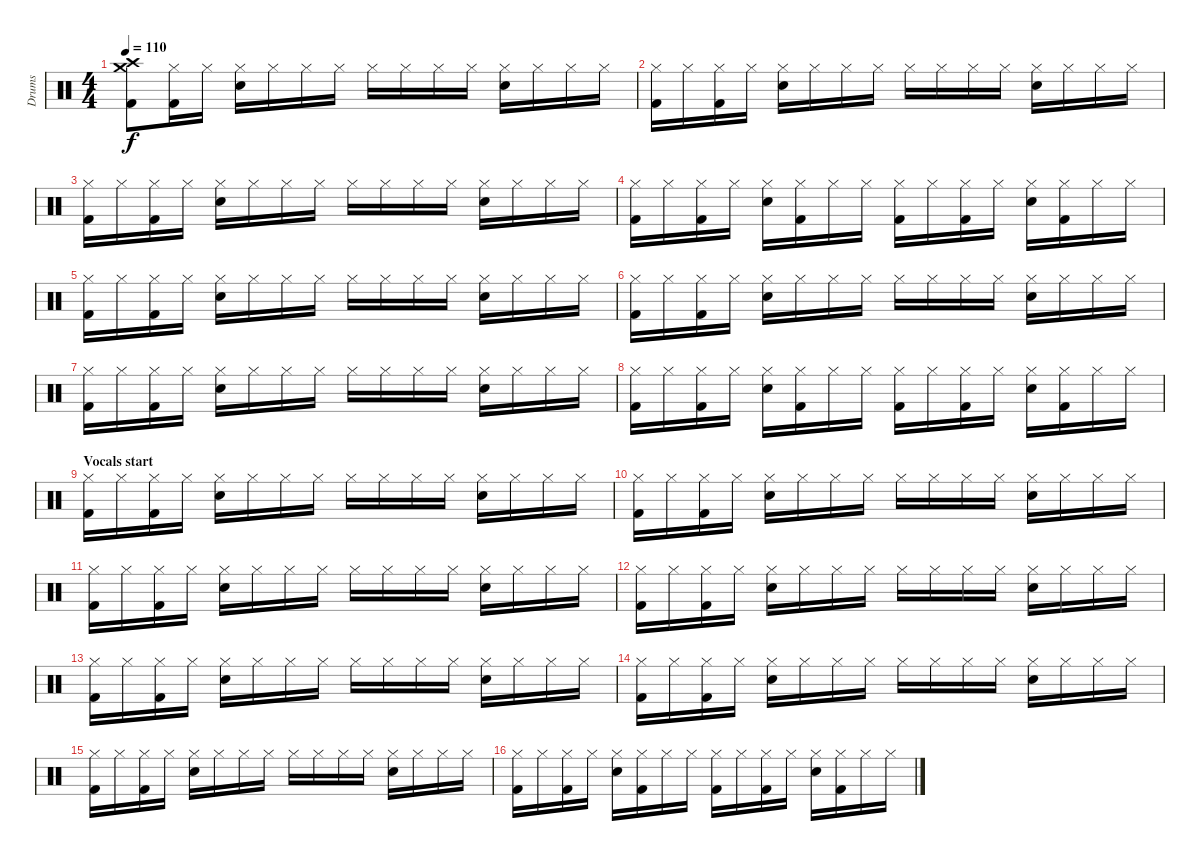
\track ("Drums" "Drums") {instrument percussion}
\staff {score}
\articulation defaults
\ts (4 4)
\tempo 110
\clef neutral
\ks c
("Crash high (hit)" "Crash medium (hit)" "Kick (hit) 2").8{dy f} ("Hi-Hat (closed)" "Kick (hit) 2").16 "Hi-Hat (closed)".16 ("Hi-Hat (closed)" "Snare (hit) 2").16 "Hi-Hat (closed)".16 "Hi-Hat (closed)".16 "Hi-Hat (closed)".16 "Hi-Hat (closed)".16 "Hi-Hat (closed)".16 "Hi-Hat (closed)".16 "Hi-Hat (closed)".16 ("Hi-Hat (closed)" "Snare (hit) 2").16 "Hi-Hat (closed)".16 "Hi-Hat (closed)".16 "Hi-Hat (closed)".16 |
("Hi-Hat (closed)" "Kick (hit) 2").16 "Hi-Hat (closed)".16 ("Hi-Hat (closed)" "Kick (hit) 2").16 "Hi-Hat (closed)".16 ("Hi-Hat (closed)" "Snare (hit) 2").16 "Hi-Hat (closed)".16 "Hi-Hat (closed)".16 "Hi-Hat (closed)".16 "Hi-Hat (closed)".16 "Hi-Hat (closed)".16 "Hi-Hat (closed)".16 "Hi-Hat (closed)".16 ("Hi-Hat (closed)" "Snare (hit) 2").16 "Hi-Hat (closed)".16 "Hi-Hat (closed)".16 "Hi-Hat (closed)".16 |
("Hi-Hat (closed)" "Kick (hit) 2").16 "Hi-Hat (closed)".16 ("Hi-Hat (closed)" "Kick (hit) 2").16 "Hi-Hat (closed)".16 ("Hi-Hat (closed)" "Snare (hit) 2").16 "Hi-Hat (closed)".16 "Hi-Hat (closed)".16 "Hi-Hat (closed)".16 "Hi-Hat (closed)".16 "Hi-Hat (closed)".16 "Hi-Hat (closed)".16 "Hi-Hat (closed)".16 ("Hi-Hat (closed)" "Snare (hit) 2").16 "Hi-Hat (closed)".16 "Hi-Hat (closed)".16 "Hi-Hat (closed)".16 |
("Hi-Hat (closed)" "Kick (hit) 2").16 "Hi-Hat (closed)".16 ("Hi-Hat (closed)" "Kick (hit) 2").16 "Hi-Hat (closed)".16 ("Hi-Hat (closed)" "Snare (hit) 2").16 ("Hi-Hat (closed)" "Kick (hit) 2").16 "Hi-Hat (closed)".16 "Hi-Hat (closed)".16 ("Hi-Hat (closed)" "Kick (hit) 2").16 "Hi-Hat (closed)".16 ("Hi-Hat (closed)" "Kick (hit) 2").16 "Hi-Hat (closed)".16 ("Hi-Hat (closed)" "Snare (hit) 2").16 ("Hi-Hat (closed)" "Kick (hit) 2").16 "Hi-Hat (closed)".16 "Hi-Hat (closed)".16 |
("Hi-Hat (closed)" "Kick (hit) 2").16 "Hi-Hat (closed)".16 ("Hi-Hat (closed)" "Kick (hit) 2").16 "Hi-Hat (closed)".16 ("Hi-Hat (closed)" "Snare (hit) 2").16 "Hi-Hat (closed)".16 "Hi-Hat (closed)".16 "Hi-Hat (closed)".16 "Hi-Hat (closed)".16 "Hi-Hat (closed)".16 "Hi-Hat (closed)".16 "Hi-Hat (closed)".16 ("Hi-Hat (closed)" "Snare (hit) 2").16 "Hi-Hat (closed)".16 "Hi-Hat (closed)".16 "Hi-Hat (closed)".16 |
("Hi-Hat (closed)" "Kick (hit) 2").16 "Hi-Hat (closed)".16 ("Hi-Hat (closed)" "Kick (hit) 2").16 "Hi-Hat (closed)".16 ("Hi-Hat (closed)" "Snare (hit) 2").16 "Hi-Hat (closed)".16 "Hi-Hat (closed)".16 "Hi-Hat (closed)".16 "Hi-Hat (closed)".16 "Hi-Hat (closed)".16 "Hi-Hat (closed)".16 "Hi-Hat (closed)".16 ("Hi-Hat (closed)" "Snare (hit) 2").16 "Hi-Hat (closed)".16 "Hi-Hat (closed)".16 "Hi-Hat (closed)".16 |
("Hi-Hat (closed)" "Kick (hit) 2").16 "Hi-Hat (closed)".16 ("Hi-Hat (closed)" "Kick (hit) 2").16 "Hi-Hat (closed)".16 ("Hi-Hat (closed)" "Snare (hit) 2").16 "Hi-Hat (closed)".16 "Hi-Hat (closed)".16 "Hi-Hat (closed)".16 "Hi-Hat (closed)".16 "Hi-Hat (closed)".16 "Hi-Hat (closed)".16 "Hi-Hat (closed)".16 ("Hi-Hat (closed)" "Snare (hit) 2").16 "Hi-Hat (closed)".16 "Hi-Hat (closed)".16 "Hi-Hat (closed)".16 |
("Hi-Hat (closed)" "Kick (hit) 2").16 "Hi-Hat (closed)".16 ("Hi-Hat (closed)" "Kick (hit) 2").16 "Hi-Hat (closed)".16 ("Hi-Hat (closed)" "Snare (hit) 2").16 ("Hi-Hat (closed)" "Kick (hit) 2").16 "Hi-Hat (closed)".16 "Hi-Hat (closed)".16 ("Hi-Hat (closed)" "Kick (hit) 2").16 "Hi-Hat (closed)".16 ("Hi-Hat (closed)" "Kick (hit) 2").16 "Hi-Hat (closed)".16 ("Hi-Hat (closed)" "Snare (hit) 2").16 ("Hi-Hat (closed)" "Kick (hit) 2").16 "Hi-Hat (closed)".16 "Hi-Hat (closed)".16 |
\section ("" "Vocals start")
("Hi-Hat (closed)" "Kick (hit) 2").16 "Hi-Hat (closed)".16 ("Hi-Hat (closed)" "Kick (hit) 2").16 "Hi-Hat (closed)".16 ("Hi-Hat (closed)" "Snare (hit) 2").16 "Hi-Hat (closed)".16 "Hi-Hat (closed)".16 "Hi-Hat (closed)".16 "Hi-Hat (closed)".16 "Hi-Hat (closed)".16 "Hi-Hat (closed)".16 "Hi-Hat (closed)".16 ("Hi-Hat (closed)" "Snare (hit) 2").16 "Hi-Hat (closed)".16 "Hi-Hat (closed)".16 "Hi-Hat (closed)".16 |
("Hi-Hat (closed)" "Kick (hit) 2").16 "Hi-Hat (closed)".16 ("Hi-Hat (closed)" "Kick (hit) 2").16 "Hi-Hat (closed)".16 ("Hi-Hat (closed)" "Snare (hit) 2").16 "Hi-Hat (closed)".16 "Hi-Hat (closed)".16 "Hi-Hat (closed)".16 "Hi-Hat (closed)".16 "Hi-Hat (closed)".16 "Hi-Hat (closed)".16 "Hi-Hat (closed)".16 ("Hi-Hat (closed)" "Snare (hit) 2").16 "Hi-Hat (closed)".16 "Hi-Hat (closed)".16 "Hi-Hat (closed)".16 |
("Hi-Hat (closed)" "Kick (hit) 2").16 "Hi-Hat (closed)".16 ("Hi-Hat (closed)" "Kick (hit) 2").16 "Hi-Hat (closed)".16 ("Hi-Hat (closed)" "Snare (hit) 2").16 "Hi-Hat (closed)".16 "Hi-Hat (closed)".16 "Hi-Hat (closed)".16 "Hi-Hat (closed)".16 "Hi-Hat (closed)".16 "Hi-Hat (closed)".16 "Hi-Hat (closed)".16 ("Hi-Hat (closed)" "Snare (hit) 2").16 "Hi-Hat (closed)".16 "Hi-Hat (closed)".16 "Hi-Hat (closed)".16 |
("Hi-Hat (closed)" "Kick (hit) 2").16 "Hi-Hat (closed)".16 ("Hi-Hat (closed)" "Kick (hit) 2").16 "Hi-Hat (closed)".16 ("Hi-Hat (closed)" "Snare (hit) 2").16 "Hi-Hat (closed)".16 "Hi-Hat (closed)".16 "Hi-Hat (closed)".16 "Hi-Hat (closed)".16 "Hi-Hat (closed)".16 "Hi-Hat (closed)".16 "Hi-Hat (closed)".16 ("Hi-Hat (closed)" "Snare (hit) 2").16 "Hi-Hat (closed)".16 "Hi-Hat (closed)".16 "Hi-Hat (closed)".16 |
("Hi-Hat (closed)" "Kick (hit) 2").16 "Hi-Hat (closed)".16 ("Hi-Hat (closed)" "Kick (hit) 2").16 "Hi-Hat (closed)".16 ("Hi-Hat (closed)" "Snare (hit) 2").16 "Hi-Hat (closed)".16 "Hi-Hat (closed)".16 "Hi-Hat (closed)".16 "Hi-Hat (closed)".16 "Hi-Hat (closed)".16 "Hi-Hat (closed)".16 "Hi-Hat (closed)".16 ("Hi-Hat (closed)" "Snare (hit) 2").16 "Hi-Hat (closed)".16 "Hi-Hat (closed)".16 "Hi-Hat (closed)".16 |
("Hi-Hat (closed)" "Kick (hit) 2").16 "Hi-Hat (closed)".16 ("Hi-Hat (closed)" "Kick (hit) 2").16 "Hi-Hat (closed)".16 ("Hi-Hat (closed)" "Snare (hit) 2").16 "Hi-Hat (closed)".16 "Hi-Hat (closed)".16 "Hi-Hat (closed)".16 "Hi-Hat (closed)".16 "Hi-Hat (closed)".16 "Hi-Hat (closed)".16 "Hi-Hat (closed)".16 ("Hi-Hat (closed)" "Snare (hit) 2").16 "Hi-Hat (closed)".16 "Hi-Hat (closed)".16 "Hi-Hat (closed)".16 |
("Hi-Hat (closed)" "Kick (hit) 2").16 "Hi-Hat (closed)".16 ("Hi-Hat (closed)" "Kick (hit) 2").16 "Hi-Hat (closed)".16 ("Hi-Hat (closed)" "Snare (hit) 2").16 "Hi-Hat (closed)".16 "Hi-Hat (closed)".16 "Hi-Hat (closed)".16 "Hi-Hat (closed)".16 "Hi-Hat (closed)".16 "Hi-Hat (closed)".16 "Hi-Hat (closed)".16 ("Hi-Hat (closed)" "Snare (hit) 2").16 "Hi-Hat (closed)".16 "Hi-Hat (closed)".16 "Hi-Hat (closed)".16 |
("Hi-Hat (closed)" "Kick (hit) 2").16 "Hi-Hat (closed)".16 ("Hi-Hat (closed)" "Kick (hit) 2").16 "Hi-Hat (closed)".16 ("Hi-Hat (closed)" "Snare (hit) 2").16 ("Hi-Hat (closed)" "Kick (hit) 2").16 "Hi-Hat (closed)".16 "Hi-Hat (closed)".16 ("Hi-Hat (closed)" "Kick (hit) 2").16 "Hi-Hat (closed)".16 ("Hi-Hat (closed)" "Kick (hit) 2").16 "Hi-Hat (closed)".16 ("Hi-Hat (closed)" "Snare (hit) 2").16 ("Hi-Hat (closed)" "Kick (hit) 2").16 "Hi-Hat (closed)".16 "Hi-Hat (closed)".16
